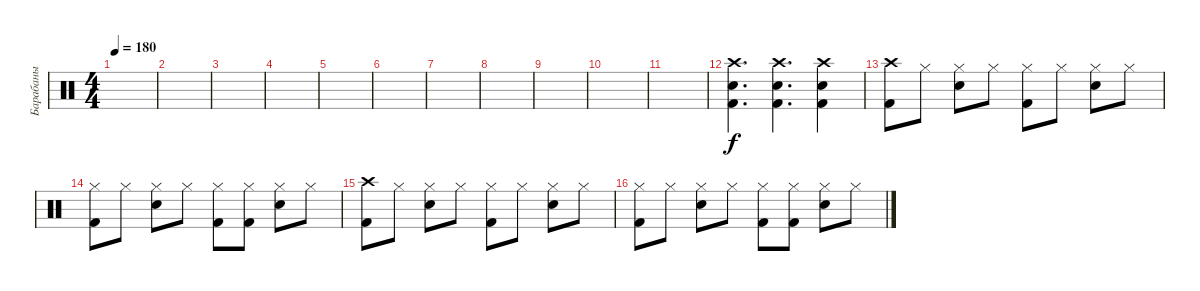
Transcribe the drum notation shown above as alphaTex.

\track ("Барабаны" "Барабаны") {instrument percussion}
\staff {score}
\articulation defaults
\ts (4 4)
\tempo 180
\tempo 120
\tempo 180
\clef neutral
\ks c
|
|
|
|
|
|
|
|
|
|
|
("Crash high (hit)" "Kick (hit) 2" "Electric Snare (hit)").4{d} ("Crash high (hit)" "Kick (hit) 2" "Electric Snare (hit)").4{d} ("Crash high (hit)" "Kick (hit) 2" "Electric Snare (hit)").4 |
("Crash high (hit)" "Kick (hit) 2").8 "Hi-Hat (closed)".8 ("Hi-Hat (closed)" "Electric Snare (hit)").8 "Hi-Hat (closed)".8 ("Hi-Hat (closed)" "Kick (hit) 2").8 "Hi-Hat (closed)".8 ("Hi-Hat (closed)" "Electric Snare (hit)").8 "Hi-Hat (closed)".8 |
("Hi-Hat (closed)" "Kick (hit) 2").8 "Hi-Hat (closed)".8 ("Hi-Hat (closed)" "Electric Snare (hit)").8 "Hi-Hat (closed)".8 ("Hi-Hat (closed)" "Kick (hit) 2").8 ("Hi-Hat (closed)" "Kick (hit) 2").8 ("Hi-Hat (closed)" "Electric Snare (hit)").8 "Hi-Hat (closed)".8 |
("Crash high (hit)" "Kick (hit) 2").8 "Hi-Hat (closed)".8 ("Hi-Hat (closed)" "Electric Snare (hit)").8 "Hi-Hat (closed)".8 ("Hi-Hat (closed)" "Kick (hit) 2").8 "Hi-Hat (closed)".8 ("Hi-Hat (closed)" "Electric Snare (hit)").8 "Hi-Hat (closed)".8 |
("Hi-Hat (closed)" "Kick (hit) 2").8 "Hi-Hat (closed)".8 ("Hi-Hat (closed)" "Electric Snare (hit)").8 "Hi-Hat (closed)".8 ("Hi-Hat (closed)" "Kick (hit) 2").8 ("Hi-Hat (closed)" "Kick (hit) 2").8 ("Hi-Hat (closed)" "Electric Snare (hit)").8 "Hi-Hat (closed)".8
